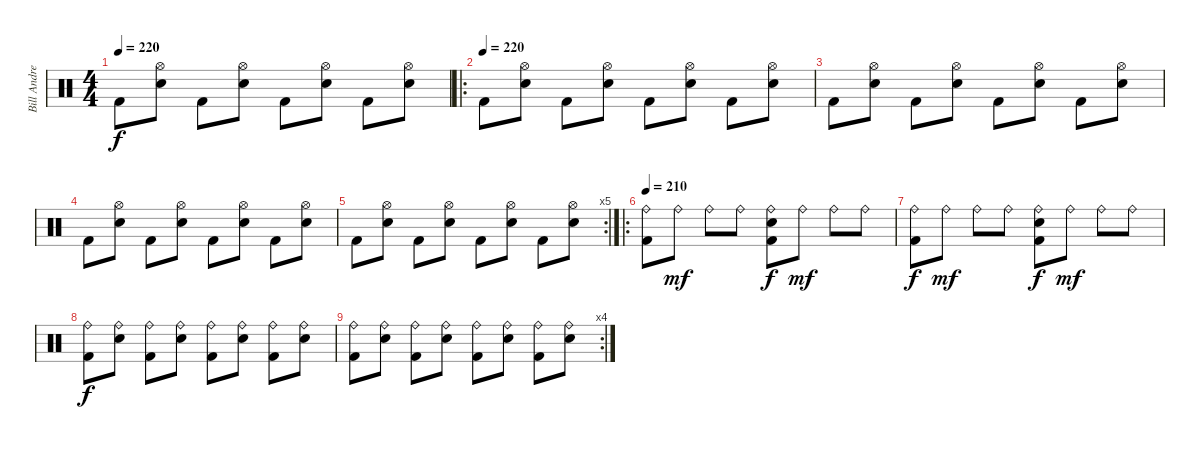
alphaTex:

\track ("Bill Andrews" "Bill Andre") {instrument percussion}
\staff {score}
\articulation defaults
\ts (4 4)
\tempo 220
\clef neutral
\ks c "Kick (hit) 2".8{dy f}
("Hi-Hat (open)" "Snare (hit) 2").8 "Kick (hit) 2".8 ("Hi-Hat (open)" "Snare (hit) 2").8 "Kick (hit) 2".8 ("Hi-Hat (open)" "Snare (hit) 2").8 "Kick (hit) 2".8 ("Hi-Hat (open)" "Snare (hit) 2").8 |
\ro
\tempo (220)
"Kick (hit) 2".8 ("Hi-Hat (open)" "Snare (hit) 2").8 "Kick (hit) 2".8 ("Hi-Hat (open)" "Snare (hit) 2").8 "Kick (hit) 2".8 ("Hi-Hat (open)" "Snare (hit) 2").8 "Kick (hit) 2".8 ("Hi-Hat (open)" "Snare (hit) 2").8 |
"Kick (hit) 2".8 ("Hi-Hat (open)" "Snare (hit) 2").8 "Kick (hit) 2".8 ("Hi-Hat (open)" "Snare (hit) 2").8 "Kick (hit) 2".8 ("Hi-Hat (open)" "Snare (hit) 2").8 "Kick (hit) 2".8 ("Hi-Hat (open)" "Snare (hit) 2").8 |
"Kick (hit) 2".8 ("Hi-Hat (open)" "Snare (hit) 2").8 "Kick (hit) 2".8 ("Hi-Hat (open)" "Snare (hit) 2").8 "Kick (hit) 2".8 ("Hi-Hat (open)" "Snare (hit) 2").8 "Kick (hit) 2".8 ("Hi-Hat (open)" "Snare (hit) 2").8 |
\rc 5 "Kick (hit) 2".8
("Hi-Hat (open)" "Snare (hit) 2").8 "Kick (hit) 2".8 ("Hi-Hat (open)" "Snare (hit) 2").8 "Kick (hit) 2".8 ("Hi-Hat (open)" "Snare (hit) 2").8 "Kick (hit) 2".8 ("Hi-Hat (open)" "Snare (hit) 2").8 |
\ro
\tempo 210
("Ride (bell)" "Kick (hit) 2").8 "Ride (bell)".8{dy mf} "Ride (bell)".8 "Ride (bell)".8 ("Ride (bell)" "Snare (hit) 2" "Kick (hit) 2").8{dy f} "Ride (bell)".8{dy mf} "Ride (bell)".8 "Ride (bell)".8 |
("Ride (bell)" "Kick (hit) 2").8{dy f} "Ride (bell)".8{dy mf} "Ride (bell)".8 "Ride (bell)".8 ("Ride (bell)" "Snare (hit) 2" "Kick (hit) 2").8{dy f} "Ride (bell)".8{dy mf} "Ride (bell)".8 "Ride (bell)".8 |
("Ride (bell)" "Kick (hit) 2").8{dy f} ("Ride (bell)" "Snare (hit) 2").8 ("Ride (bell)" "Kick (hit) 2").8 ("Ride (bell)" "Snare (hit) 2").8 ("Ride (bell)" "Kick (hit) 2").8 ("Ride (bell)" "Snare (hit) 2").8 ("Ride (bell)" "Kick (hit) 2").8 ("Ride (bell)" "Snare (hit) 2").8 |
\rc 4
("Ride (bell)" "Kick (hit) 2").8 ("Ride (bell)" "Snare (hit) 2").8 ("Ride (bell)" "Kick (hit) 2").8 ("Ride (bell)" "Snare (hit) 2").8 ("Ride (bell)" "Kick (hit) 2").8 ("Ride (bell)" "Snare (hit) 2").8 ("Ride (bell)" "Kick (hit) 2").8 ("Ride (bell)" "Snare (hit) 2").8
